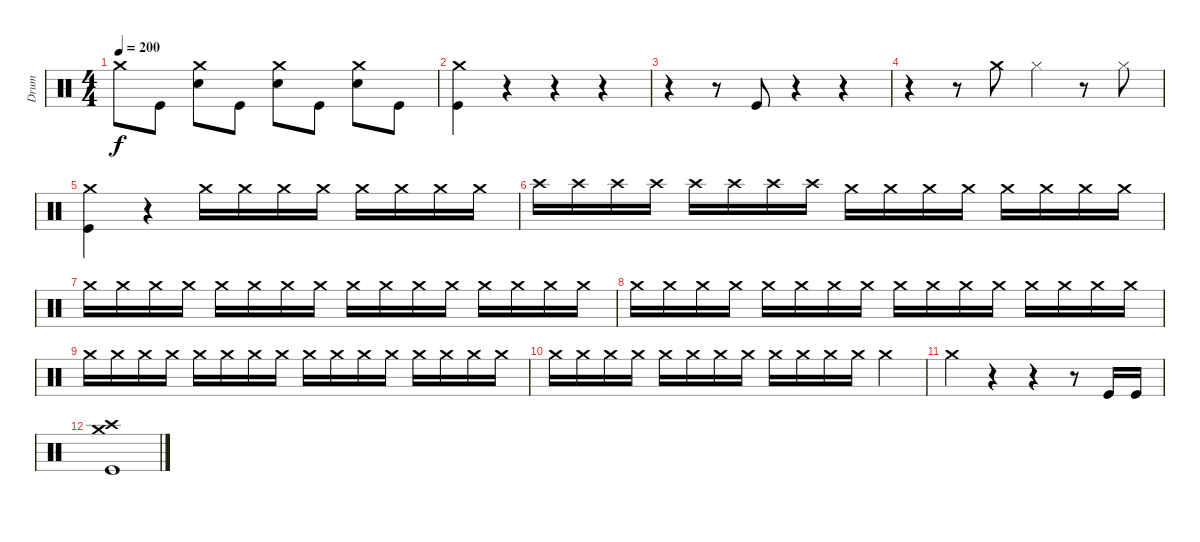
\track ("Drum" "Drum") {instrument percussion}
\staff {score}
\articulation defaults
\ts (4 4)
\tempo 200
\clef neutral
\ks c "Crash medium (hit)".8{dy f} "Kick (hit)".8
("Crash medium (hit)" "Snare (hit) 2").8 "Kick (hit)".8 ("Crash medium (hit)" "Snare (hit) 2").8 "Kick (hit)".8 ("Crash medium (hit)" "Snare (hit) 2").8 "Kick (hit)".8 |
("Crash medium (hit)" "Kick (hit)").4 r.4 r.4 r.4 |
r.4 r.8 "Kick (hit)".8 r.4 r.4 |
r.4 r.8 "Crash medium (hit)".8 "Hi-Hat (closed)".4 r.8 "Hi-Hat (closed)".8 |
("Crash medium (hit)" "Kick (hit)").4 r.4 "Crash medium (hit)".16 "Crash medium (hit)".16 "Crash medium (hit)".16 "Crash medium (hit)".16 "Crash medium (hit)".16 "Crash medium (hit)".16 "Crash medium (hit)".16 "Crash medium (hit)".16 |
"Crash high (hit)".16 "Crash high (hit)".16 "Crash high (hit)".16 "Crash high (hit)".16 "Crash high (hit)".16 "Crash high (hit)".16 "Crash high (hit)".16 "Crash high (hit)".16 "Crash medium (hit)".16 "Crash medium (hit)".16 "Crash medium (hit)".16 "Crash medium (hit)".16 "Crash medium (hit)".16 "Crash medium (hit)".16 "Crash medium (hit)".16 "Crash medium (hit)".16 |
"Crash medium (hit)".16 "Crash medium (hit)".16 "Crash medium (hit)".16 "Crash medium (hit)".16 "Crash medium (hit)".16 "Crash medium (hit)".16 "Crash medium (hit)".16 "Crash medium (hit)".16 "Crash medium (hit)".16 "Crash medium (hit)".16 "Crash medium (hit)".16 "Crash medium (hit)".16 "Crash medium (hit)".16 "Crash medium (hit)".16 "Crash medium (hit)".16 "Crash medium (hit)".16 |
"Crash medium (hit)".16 "Crash medium (hit)".16 "Crash medium (hit)".16 "Crash medium (hit)".16 "Crash medium (hit)".16 "Crash medium (hit)".16 "Crash medium (hit)".16 "Crash medium (hit)".16 "Crash medium (hit)".16 "Crash medium (hit)".16 "Crash medium (hit)".16 "Crash medium (hit)".16 "Crash medium (hit)".16 "Crash medium (hit)".16 "Crash medium (hit)".16 "Crash medium (hit)".16 |
"Crash medium (hit)".16 "Crash medium (hit)".16 "Crash medium (hit)".16 "Crash medium (hit)".16 "Crash medium (hit)".16 "Crash medium (hit)".16 "Crash medium (hit)".16 "Crash medium (hit)".16 "Crash medium (hit)".16 "Crash medium (hit)".16 "Crash medium (hit)".16 "Crash medium (hit)".16 "Crash medium (hit)".16 "Crash medium (hit)".16 "Crash medium (hit)".16 "Crash medium (hit)".16 |
"Crash medium (hit)".16 "Crash medium (hit)".16 "Crash medium (hit)".16 "Crash medium (hit)".16 "Crash medium (hit)".16 "Crash medium (hit)".16 "Crash medium (hit)".16 "Crash medium (hit)".16 "Crash medium (hit)".16 "Crash medium (hit)".16 "Crash medium (hit)".16 "Crash medium (hit)".16 "Crash medium (hit)".4 |
"Crash medium (hit)".4 r.4 r.4 r.8 "Kick (hit)".16 "Kick (hit)".16 |
("Crash medium (hit)" "Crash high (hit)" "Kick (hit)").1
